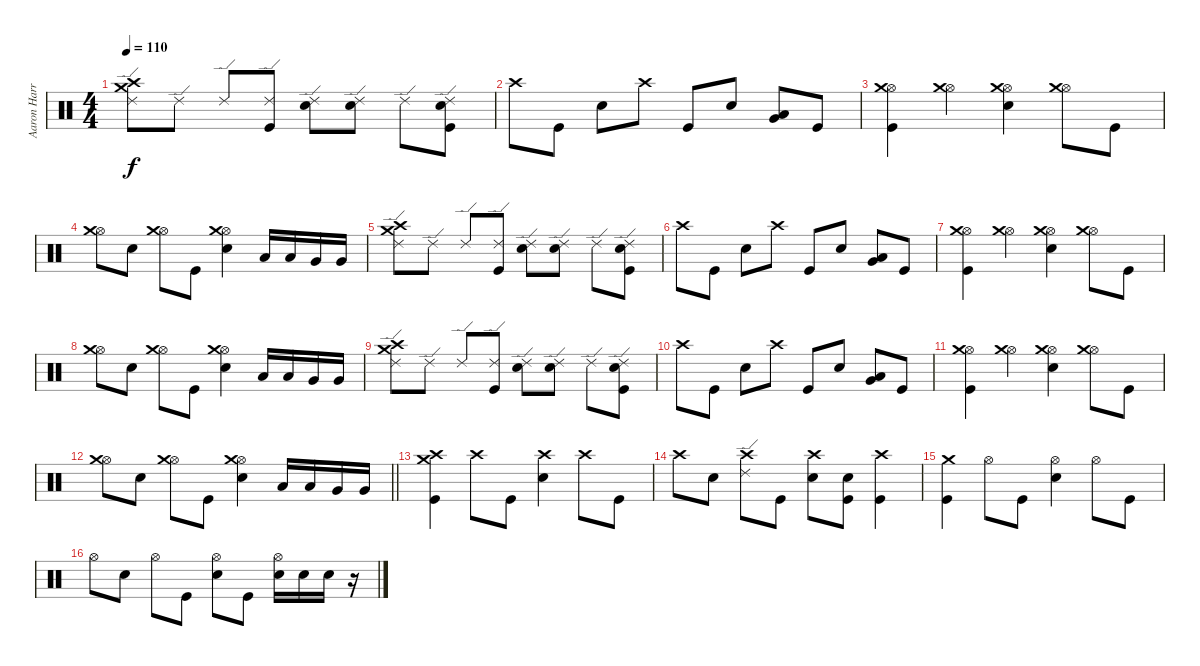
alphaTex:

\track ("Aaron Harris" "Aaron Harr") {instrument percussion}
\staff {score}
\articulation defaults
\ts (4 4)
\tempo 110
\clef neutral
\ks c
("Ride (edge) 2" "Crash medium (hit)" "Crash high (hit)").8{dy f} "Ride (edge) 2".8 "Ride (edge) 2".8 ("Ride (edge) 2" "Kick (hit)").8 ("Ride (edge) 2" "Snare (hit) 2").8 ("Ride (edge) 2" "Snare (hit) 2").8 "Ride (edge) 2".8 ("Ride (edge) 2" "Snare (hit) 2" "Kick (hit)").8 |
"Crash high (hit)".8 "Kick (hit)".8 "Snare (hit) 2".8 "Crash high (hit)".8 "Kick (hit)".8 "Snare (hit) 2".8 ("Very Low Tom (hit)" "Low Tom (hit)").8 "Kick (hit)".8 |
("Hi-Hat (open)" "Crash medium (hit)" "Kick (hit)").4 ("Hi-Hat (open)" "Crash medium (hit)").4 ("Hi-Hat (open)" "Crash medium (hit)" "Snare (hit) 2").4 ("Hi-Hat (open)" "Crash medium (hit)").8 "Kick (hit)".8 |
("Hi-Hat (open)" "Crash medium (hit)").8 "Snare (hit) 2".8 ("Hi-Hat (open)" "Crash medium (hit)").8 "Kick (hit)".8 ("Hi-Hat (open)" "Crash medium (hit)" "Snare (hit) 2").4 "Low Tom (hit)".16 "Low Tom (hit)".16 "Very Low Tom (hit)".16 "Very Low Tom (hit)".16 |
("Ride (edge) 2" "Crash medium (hit)" "Crash high (hit)").8 "Ride (edge) 2".8 "Ride (edge) 2".8 ("Ride (edge) 2" "Kick (hit)").8 ("Ride (edge) 2" "Snare (hit) 2").8 ("Ride (edge) 2" "Snare (hit) 2").8 "Ride (edge) 2".8 ("Ride (edge) 2" "Snare (hit) 2" "Kick (hit)").8 |
"Crash high (hit)".8 "Kick (hit)".8 "Snare (hit) 2".8 "Crash high (hit)".8 "Kick (hit)".8 "Snare (hit) 2".8 ("Very Low Tom (hit)" "Low Tom (hit)").8 "Kick (hit)".8 |
("Hi-Hat (open)" "Crash medium (hit)" "Kick (hit)").4 ("Hi-Hat (open)" "Crash medium (hit)").4 ("Hi-Hat (open)" "Crash medium (hit)" "Snare (hit) 2").4 ("Hi-Hat (open)" "Crash medium (hit)").8 "Kick (hit)".8 |
("Hi-Hat (open)" "Crash medium (hit)").8 "Snare (hit) 2".8 ("Hi-Hat (open)" "Crash medium (hit)").8 "Kick (hit)".8 ("Hi-Hat (open)" "Crash medium (hit)" "Snare (hit) 2").4 "Low Tom (hit)".16 "Low Tom (hit)".16 "Very Low Tom (hit)".16 "Very Low Tom (hit)".16 |
("Ride (edge) 2" "Crash medium (hit)" "Crash high (hit)").8 "Ride (edge) 2".8 "Ride (edge) 2".8 ("Ride (edge) 2" "Kick (hit)").8 ("Ride (edge) 2" "Snare (hit) 2").8 ("Ride (edge) 2" "Snare (hit) 2").8 "Ride (edge) 2".8 ("Ride (edge) 2" "Snare (hit) 2" "Kick (hit)").8 |
"Crash high (hit)".8 "Kick (hit)".8 "Snare (hit) 2".8 "Crash high (hit)".8 "Kick (hit)".8 "Snare (hit) 2".8 ("Very Low Tom (hit)" "Low Tom (hit)").8 "Kick (hit)".8 |
("Hi-Hat (open)" "Crash medium (hit)" "Kick (hit)").4 ("Hi-Hat (open)" "Crash medium (hit)").4 ("Hi-Hat (open)" "Crash medium (hit)" "Snare (hit) 2").4 ("Hi-Hat (open)" "Crash medium (hit)").8 "Kick (hit)".8 |
\barLineRight lightlight
("Hi-Hat (open)" "Crash medium (hit)").8 "Snare (hit) 2".8 ("Hi-Hat (open)" "Crash medium (hit)").8 "Kick (hit)".8 ("Hi-Hat (open)" "Crash medium (hit)" "Snare (hit) 2").4 "Low Tom (hit)".16 "Low Tom (hit)".16 "Very Low Tom (hit)".16 "Very Low Tom (hit)".16 |
("Crash high (hit)" "Crash medium (hit)" "Kick (hit)").4 "Crash high (hit)".8 "Kick (hit)".8 ("Crash high (hit)" "Snare (hit) 2").4 "Crash high (hit)".8 "Kick (hit)".8 |
"Crash high (hit)".8 "Snare (hit) 2".8 ("Crash high (hit)" "Ride (edge) 2").8 "Kick (hit)".8 ("Crash high (hit)" "Snare (hit) 2").8 ("Snare (hit) 2" "Kick (hit)").8 ("Crash high (hit)" "Kick (hit)").4 |
("Crash medium (hit)" "Kick (hit)").4 "Hi-Hat (open)".8 "Kick (hit)".8 ("Hi-Hat (open)" "Snare (hit) 2").4 "Hi-Hat (open)".8 "Kick (hit)".8 |
"Hi-Hat (open)".8 "Snare (hit) 2".8 "Hi-Hat (open)".8 "Kick (hit)".8 ("Hi-Hat (open)" "Snare (hit) 2").8 "Kick (hit)".8 ("Hi-Hat (open)" "Snare (hit) 2").16 "Snare (hit) 2".16 "Snare (hit) 2".16 r.16
